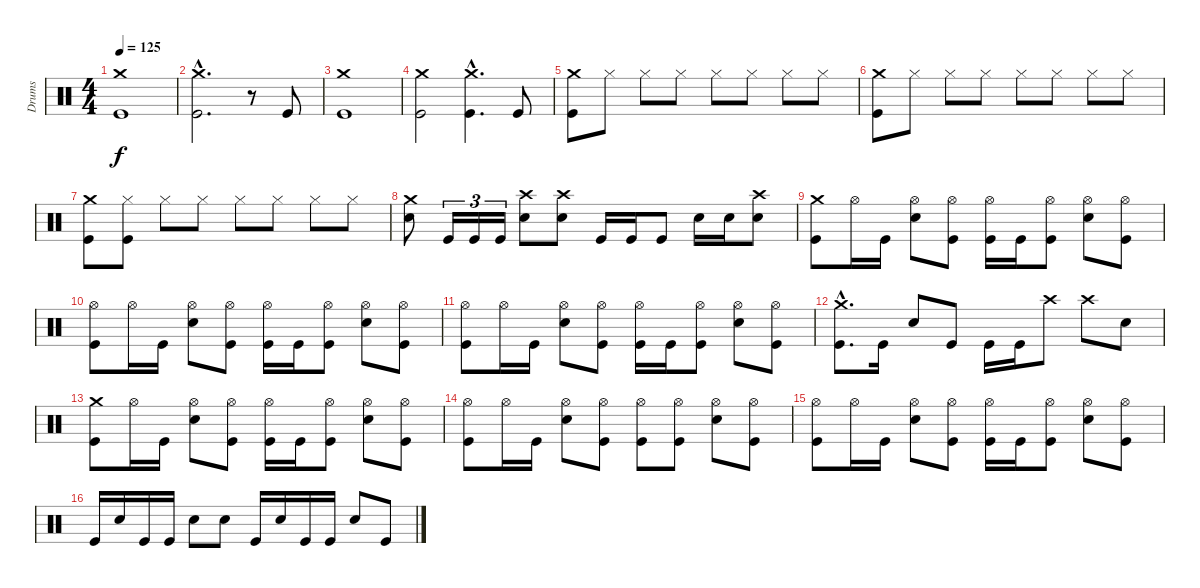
\track ("Drums" "Drums") {instrument percussion}
\staff {score}
\articulation defaults
\ts (4 4)
\tempo 125
\clef neutral
\ks c
("Kick (hit)" "Crash medium (hit)").1{dy f} |
("Kick (hit)"{hac} "Crash medium (hit)"{hac}).2{d} r.8 "Kick (hit)".8 |
("Kick (hit)" "Crash medium (hit)").1 |
("Kick (hit)" "Crash medium (hit)").2 ("Kick (hit)"{hac} "Crash medium (hit)"{hac}).4{d} "Kick (hit)".8 |
("Kick (hit)" "Crash medium (hit)").8 "Hi-Hat (closed)".8 "Hi-Hat (closed)".8 "Hi-Hat (closed)".8 "Hi-Hat (closed)".8 "Hi-Hat (closed)".8 "Hi-Hat (closed)".8 "Hi-Hat (closed)".8 |
("Kick (hit)" "Crash medium (hit)").8 "Hi-Hat (closed)".8 "Hi-Hat (closed)".8 "Hi-Hat (closed)".8 "Hi-Hat (closed)".8 "Hi-Hat (closed)".8 "Hi-Hat (closed)".8 "Hi-Hat (closed)".8 |
("Kick (hit)" "Crash medium (hit)").8 ("Kick (hit)" "Hi-Hat (closed)").8 "Hi-Hat (closed)".8 "Hi-Hat (closed)".8 "Hi-Hat (closed)".8 "Hi-Hat (closed)".8 "Hi-Hat (closed)".8 "Hi-Hat (closed)".8 |
("Electric Snare (hit)" "Crash medium (hit)").8 "Kick (hit)".16{tu (3 2)} "Kick (hit)".16{tu (3 2)} "Kick (hit)".16{tu (3 2)} ("Electric Snare (hit)" "Crash high (hit)").8 ("Electric Snare (hit)" "Crash high (hit)").8 "Kick (hit)".16 "Kick (hit)".16 "Kick (hit)".8 "Electric Snare (hit)".16 "Electric Snare (hit)".16 ("Electric Snare (hit)" "Crash high (hit)").8 |
("Kick (hit)" "Crash medium (hit)").8 "Hi-Hat (open)".16 "Kick (hit)".16 ("Electric Snare (hit)" "Hi-Hat (open)").8 ("Kick (hit)" "Hi-Hat (open)").8 ("Kick (hit)" "Hi-Hat (open)").16 "Kick (hit)".16 ("Kick (hit)" "Hi-Hat (open)").8 ("Electric Snare (hit)" "Hi-Hat (open)").8 ("Kick (hit)" "Hi-Hat (open)").8 |
("Kick (hit)" "Hi-Hat (open)").8 "Hi-Hat (open)".16 "Kick (hit)".16 ("Electric Snare (hit)" "Hi-Hat (open)").8 ("Kick (hit)" "Hi-Hat (open)").8 ("Kick (hit)" "Hi-Hat (open)").16 "Kick (hit)".16 ("Kick (hit)" "Hi-Hat (open)").8 ("Electric Snare (hit)" "Hi-Hat (open)").8 ("Kick (hit)" "Hi-Hat (open)").8 |
("Kick (hit)" "Hi-Hat (open)").8 "Hi-Hat (open)".16 "Kick (hit)".16 ("Electric Snare (hit)" "Hi-Hat (open)").8 ("Kick (hit)" "Hi-Hat (open)").8 ("Kick (hit)" "Hi-Hat (open)").16 "Kick (hit)".16 ("Kick (hit)" "Hi-Hat (open)").8 ("Electric Snare (hit)" "Hi-Hat (open)").8 ("Kick (hit)" "Hi-Hat (open)").8 |
("Kick (hit)"{hac} "Crash medium (hit)"{hac}).8{d} "Kick (hit)".16 "Electric Snare (hit)".8 "Kick (hit)".8 "Kick (hit)".16 "Kick (hit)".16 "Crash high (hit)".8 "Crash high (hit)".8 "Electric Snare (hit)".8 |
("Kick (hit)" "Crash medium (hit)").8 "Hi-Hat (open)".16 "Kick (hit)".16 ("Electric Snare (hit)" "Hi-Hat (open)").8 ("Kick (hit)" "Hi-Hat (open)").8 ("Kick (hit)" "Hi-Hat (open)").16 "Kick (hit)".16 ("Kick (hit)" "Hi-Hat (open)").8 ("Electric Snare (hit)" "Hi-Hat (open)").8 ("Kick (hit)" "Hi-Hat (open)").8 |
("Kick (hit)" "Hi-Hat (open)").8 "Hi-Hat (open)".16 "Kick (hit)".16 ("Electric Snare (hit)" "Hi-Hat (open)").8 ("Kick (hit)" "Hi-Hat (open)").8 ("Kick (hit)" "Hi-Hat (open)").8 ("Kick (hit)" "Hi-Hat (open)").8 ("Electric Snare (hit)" "Hi-Hat (open)").8 ("Kick (hit)" "Hi-Hat (open)").8 |
("Kick (hit)" "Hi-Hat (open)").8 "Hi-Hat (open)".16 "Kick (hit)".16 ("Electric Snare (hit)" "Hi-Hat (open)").8 ("Kick (hit)" "Hi-Hat (open)").8 ("Kick (hit)" "Hi-Hat (open)").16 "Kick (hit)".16 ("Kick (hit)" "Hi-Hat (open)").8 ("Electric Snare (hit)" "Hi-Hat (open)").8 ("Kick (hit)" "Hi-Hat (open)").8 |
"Kick (hit)".16 "Electric Snare (hit)".16 "Kick (hit)".16 "Kick (hit)".16 "Electric Snare (hit)".8 "Electric Snare (hit)".8 "Kick (hit)".16 "Electric Snare (hit)".16 "Kick (hit)".16 "Kick (hit)".16 "Electric Snare (hit)".8 "Kick (hit)".8
